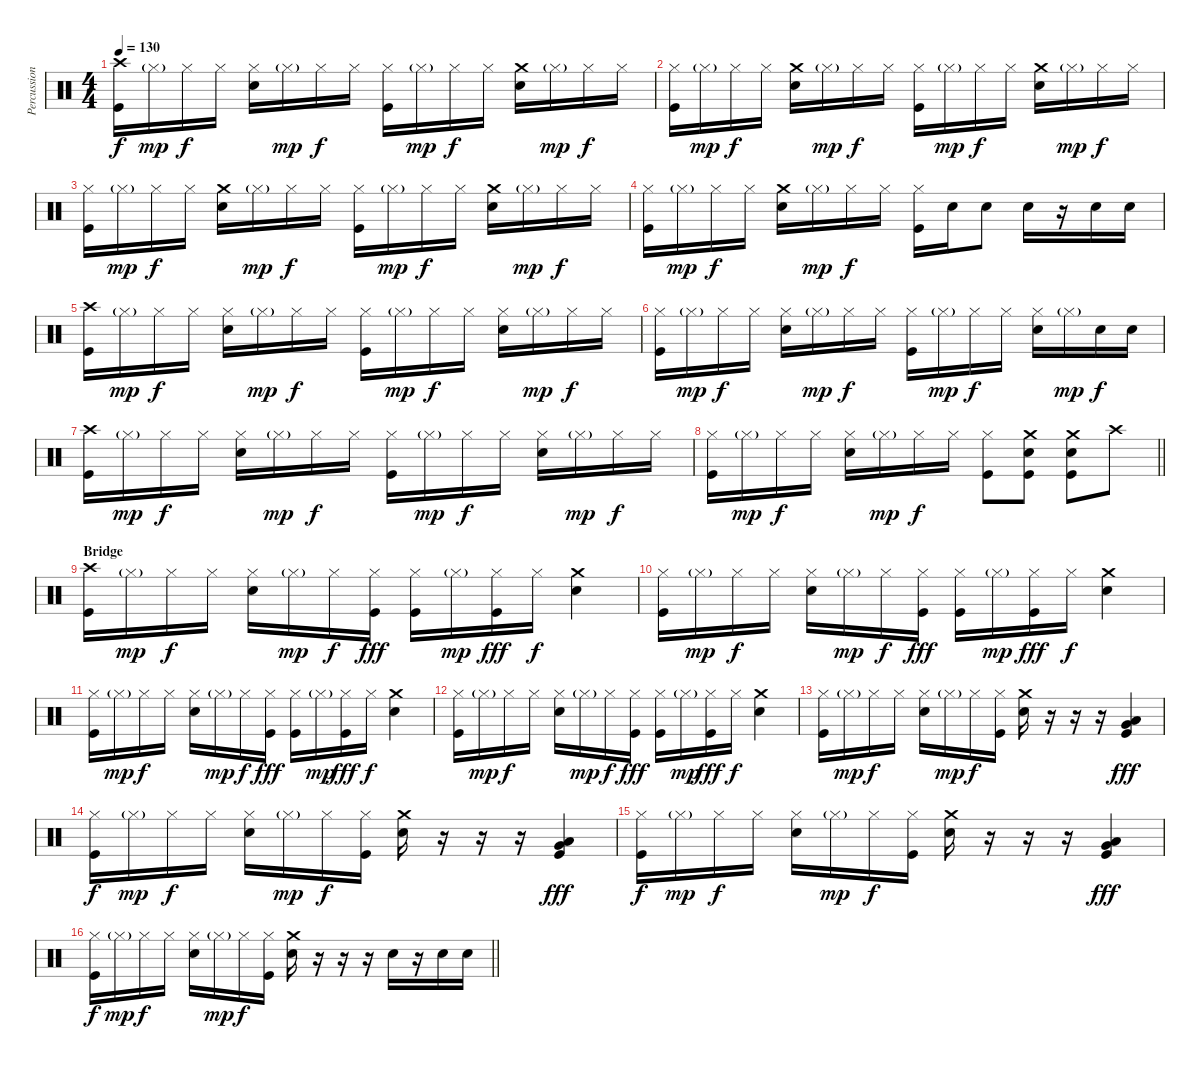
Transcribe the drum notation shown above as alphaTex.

\track ("Percussions" "Percussion") {instrument percussion}
\staff {score}
\articulation defaults
\ts (4 4)
\tempo 130
\clef neutral
\ks c
("Crash high (hit)" "Kick (hit)").16{dy f} "Hi-Hat (closed)"{g}.16{dy mp} "Hi-Hat (closed)".16{dy f} "Hi-Hat (closed)".16 ("Hi-Hat (closed)" "Snare (hit) 2").16 "Hi-Hat (closed)"{g}.16{dy mp} "Hi-Hat (closed)".16{dy f} "Hi-Hat (closed)".16 ("Hi-Hat (closed)" "Kick (hit)").16 "Hi-Hat (closed)"{g}.16{dy mp} "Hi-Hat (closed)".16{dy f} "Hi-Hat (closed)".16 ("Crash medium (hit)" "Snare (hit) 2").16 "Hi-Hat (closed)"{g}.16{dy mp} "Hi-Hat (closed)".16{dy f} "Hi-Hat (closed)".16 |
("Hi-Hat (closed)" "Kick (hit)").16 "Hi-Hat (closed)"{g}.16{dy mp} "Hi-Hat (closed)".16{dy f} "Hi-Hat (closed)".16 ("Crash medium (hit)" "Snare (hit) 2").16 "Hi-Hat (closed)"{g}.16{dy mp} "Hi-Hat (closed)".16{dy f} "Hi-Hat (closed)".16 ("Hi-Hat (closed)" "Kick (hit)").16 "Hi-Hat (closed)"{g}.16{dy mp} "Hi-Hat (closed)".16{dy f} "Hi-Hat (closed)".16 ("Crash medium (hit)" "Snare (hit) 2").16 "Hi-Hat (closed)"{g}.16{dy mp} "Hi-Hat (closed)".16{dy f} "Hi-Hat (closed)".16 |
("Hi-Hat (closed)" "Kick (hit)").16 "Hi-Hat (closed)"{g}.16{dy mp} "Hi-Hat (closed)".16{dy f} "Hi-Hat (closed)".16 ("Crash medium (hit)" "Snare (hit) 2").16 "Hi-Hat (closed)"{g}.16{dy mp} "Hi-Hat (closed)".16{dy f} "Hi-Hat (closed)".16 ("Hi-Hat (closed)" "Kick (hit)").16 "Hi-Hat (closed)"{g}.16{dy mp} "Hi-Hat (closed)".16{dy f} "Hi-Hat (closed)".16 ("Crash medium (hit)" "Snare (hit) 2").16 "Hi-Hat (closed)"{g}.16{dy mp} "Hi-Hat (closed)".16{dy f} "Hi-Hat (closed)".16 |
("Hi-Hat (closed)" "Kick (hit)").16 "Hi-Hat (closed)"{g}.16{dy mp} "Hi-Hat (closed)".16{dy f} "Hi-Hat (closed)".16 ("Crash medium (hit)" "Snare (hit) 2").16 "Hi-Hat (closed)"{g}.16{dy mp} "Hi-Hat (closed)".16{dy f} "Hi-Hat (closed)".16 ("Hi-Hat (closed)" "Kick (hit)").16 "Snare (hit) 2".16 "Snare (hit) 2".8 "Snare (hit) 2".16 r.16 "Snare (hit) 2".16 "Snare (hit) 2".16 |
("Crash high (hit)" "Kick (hit)").16 "Hi-Hat (closed)"{g}.16{dy mp} "Hi-Hat (closed)".16{dy f} "Hi-Hat (closed)".16 ("Hi-Hat (closed)" "Snare (hit) 2").16 "Hi-Hat (closed)"{g}.16{dy mp} "Hi-Hat (closed)".16{dy f} "Hi-Hat (closed)".16 ("Hi-Hat (closed)" "Kick (hit)").16 "Hi-Hat (closed)"{g}.16{dy mp} "Hi-Hat (closed)".16{dy f} "Hi-Hat (closed)".16 ("Hi-Hat (closed)" "Snare (hit) 2").16 "Hi-Hat (closed)"{g}.16{dy mp} "Hi-Hat (closed)".16{dy f} "Hi-Hat (closed)".16 |
("Hi-Hat (closed)" "Kick (hit)").16 "Hi-Hat (closed)"{g}.16{dy mp} "Hi-Hat (closed)".16{dy f} "Hi-Hat (closed)".16 ("Hi-Hat (closed)" "Snare (hit) 2").16 "Hi-Hat (closed)"{g}.16{dy mp} "Hi-Hat (closed)".16{dy f} "Hi-Hat (closed)".16 ("Hi-Hat (closed)" "Kick (hit)").16 "Hi-Hat (closed)"{g}.16{dy mp} "Hi-Hat (closed)".16{dy f} "Hi-Hat (closed)".16 ("Hi-Hat (closed)" "Snare (hit) 2").16 "Hi-Hat (closed)"{g}.16{dy mp} "Snare (hit) 2".16{dy f} "Snare (hit) 2".16 |
("Crash high (hit)" "Kick (hit)").16 "Hi-Hat (closed)"{g}.16{dy mp} "Hi-Hat (closed)".16{dy f} "Hi-Hat (closed)".16 ("Hi-Hat (closed)" "Snare (hit) 2").16 "Hi-Hat (closed)"{g}.16{dy mp} "Hi-Hat (closed)".16{dy f} "Hi-Hat (closed)".16 ("Hi-Hat (closed)" "Kick (hit)").16 "Hi-Hat (closed)"{g}.16{dy mp} "Hi-Hat (closed)".16{dy f} "Hi-Hat (closed)".16 ("Hi-Hat (closed)" "Snare (hit) 2").16 "Hi-Hat (closed)"{g}.16{dy mp} "Hi-Hat (closed)".16{dy f} "Hi-Hat (closed)".16 |
\barLineRight lightlight
("Hi-Hat (closed)" "Kick (hit)").16 "Hi-Hat (closed)"{g}.16{dy mp} "Hi-Hat (closed)".16{dy f} "Hi-Hat (closed)".16 ("Hi-Hat (closed)" "Snare (hit) 2").16 "Hi-Hat (closed)"{g}.16{dy mp} "Hi-Hat (closed)".16{dy f} "Hi-Hat (closed)".16 ("Hi-Hat (closed)" "Kick (hit)").8 ("Crash medium (hit)" "Snare (hit) 2" "Kick (hit)").8 ("Crash medium (hit)" "Snare (hit) 2" "Kick (hit)").8 "Crash high (hit)".8 |
\section ("" "Bridge")
("Crash high (hit)" "Kick (hit)").16 "Hi-Hat (closed)"{g}.16{dy mp} "Hi-Hat (closed)".16{dy f} "Hi-Hat (closed)".16 ("Hi-Hat (closed)" "Snare (hit) 2").16 "Hi-Hat (closed)"{g}.16{dy mp} "Hi-Hat (closed)".16{dy f} ("Hi-Hat (closed)" "Kick (hit)").16{dy fff} ("Hi-Hat (closed)" "Kick (hit)").16 "Hi-Hat (closed)"{g}.16{dy mp} ("Hi-Hat (closed)" "Kick (hit)").16{dy fff} "Hi-Hat (closed)".16{dy f} ("Crash medium (hit)" "Snare (hit) 2").4 |
("Hi-Hat (closed)" "Kick (hit)").16 "Hi-Hat (closed)"{g}.16{dy mp} "Hi-Hat (closed)".16{dy f} "Hi-Hat (closed)".16 ("Hi-Hat (closed)" "Snare (hit) 2").16 "Hi-Hat (closed)"{g}.16{dy mp} "Hi-Hat (closed)".16{dy f} ("Hi-Hat (closed)" "Kick (hit)").16{dy fff} ("Hi-Hat (closed)" "Kick (hit)").16 "Hi-Hat (closed)"{g}.16{dy mp} ("Hi-Hat (closed)" "Kick (hit)").16{dy fff} "Hi-Hat (closed)".16{dy f} ("Crash medium (hit)" "Snare (hit) 2").4 |
("Hi-Hat (closed)" "Kick (hit)").16 "Hi-Hat (closed)"{g}.16{dy mp} "Hi-Hat (closed)".16{dy f} "Hi-Hat (closed)".16 ("Hi-Hat (closed)" "Snare (hit) 2").16 "Hi-Hat (closed)"{g}.16{dy mp} "Hi-Hat (closed)".16{dy f} ("Hi-Hat (closed)" "Kick (hit)").16{dy fff} ("Hi-Hat (closed)" "Kick (hit)").16 "Hi-Hat (closed)"{g}.16{dy mp} ("Hi-Hat (closed)" "Kick (hit)").16{dy fff} "Hi-Hat (closed)".16{dy f} ("Crash medium (hit)" "Snare (hit) 2").4 |
("Hi-Hat (closed)" "Kick (hit)").16 "Hi-Hat (closed)"{g}.16{dy mp} "Hi-Hat (closed)".16{dy f} "Hi-Hat (closed)".16 ("Hi-Hat (closed)" "Snare (hit) 2").16 "Hi-Hat (closed)"{g}.16{dy mp} "Hi-Hat (closed)".16{dy f} ("Hi-Hat (closed)" "Kick (hit)").16{dy fff} ("Hi-Hat (closed)" "Kick (hit)").16 "Hi-Hat (closed)"{g}.16{dy mp} ("Hi-Hat (closed)" "Kick (hit)").16{dy fff} "Hi-Hat (closed)".16{dy f} ("Crash medium (hit)" "Snare (hit) 2").4 |
("Hi-Hat (closed)" "Kick (hit)").16 "Hi-Hat (closed)"{g}.16{dy mp} "Hi-Hat (closed)".16{dy f} "Hi-Hat (closed)".16 ("Hi-Hat (closed)" "Snare (hit) 2").16 "Hi-Hat (closed)"{g}.16{dy mp} "Hi-Hat (closed)".16{dy f} ("Hi-Hat (closed)" "Kick (hit)").16 ("Crash medium (hit)" "Snare (hit) 2").16 r.16 r.16 r.16 ("Low Tom (hit)" "Very Low Tom (hit)" "Kick (hit)").4{dy fff} |
("Hi-Hat (closed)" "Kick (hit)").16{dy f} "Hi-Hat (closed)"{g}.16{dy mp} "Hi-Hat (closed)".16{dy f} "Hi-Hat (closed)".16 ("Hi-Hat (closed)" "Snare (hit) 2").16 "Hi-Hat (closed)"{g}.16{dy mp} "Hi-Hat (closed)".16{dy f} ("Hi-Hat (closed)" "Kick (hit)").16 ("Crash medium (hit)" "Snare (hit) 2").16 r.16 r.16 r.16 ("Low Tom (hit)" "Very Low Tom (hit)" "Kick (hit)").4{dy fff} |
("Hi-Hat (closed)" "Kick (hit)").16{dy f} "Hi-Hat (closed)"{g}.16{dy mp} "Hi-Hat (closed)".16{dy f} "Hi-Hat (closed)".16 ("Hi-Hat (closed)" "Snare (hit) 2").16 "Hi-Hat (closed)"{g}.16{dy mp} "Hi-Hat (closed)".16{dy f} ("Hi-Hat (closed)" "Kick (hit)").16 ("Crash medium (hit)" "Snare (hit) 2").16 r.16 r.16 r.16 ("Low Tom (hit)" "Very Low Tom (hit)" "Kick (hit)").4{dy fff} |
\barLineRight lightlight
("Hi-Hat (closed)" "Kick (hit)").16{dy f} "Hi-Hat (closed)"{g}.16{dy mp} "Hi-Hat (closed)".16{dy f} "Hi-Hat (closed)".16 ("Hi-Hat (closed)" "Snare (hit) 2").16 "Hi-Hat (closed)"{g}.16{dy mp} "Hi-Hat (closed)".16{dy f} ("Hi-Hat (closed)" "Kick (hit)").16 ("Crash medium (hit)" "Snare (hit) 2").16 r.16 r.16 r.16 "Snare (hit) 2".16 r.16 "Snare (hit) 2".16 "Snare (hit) 2".16
